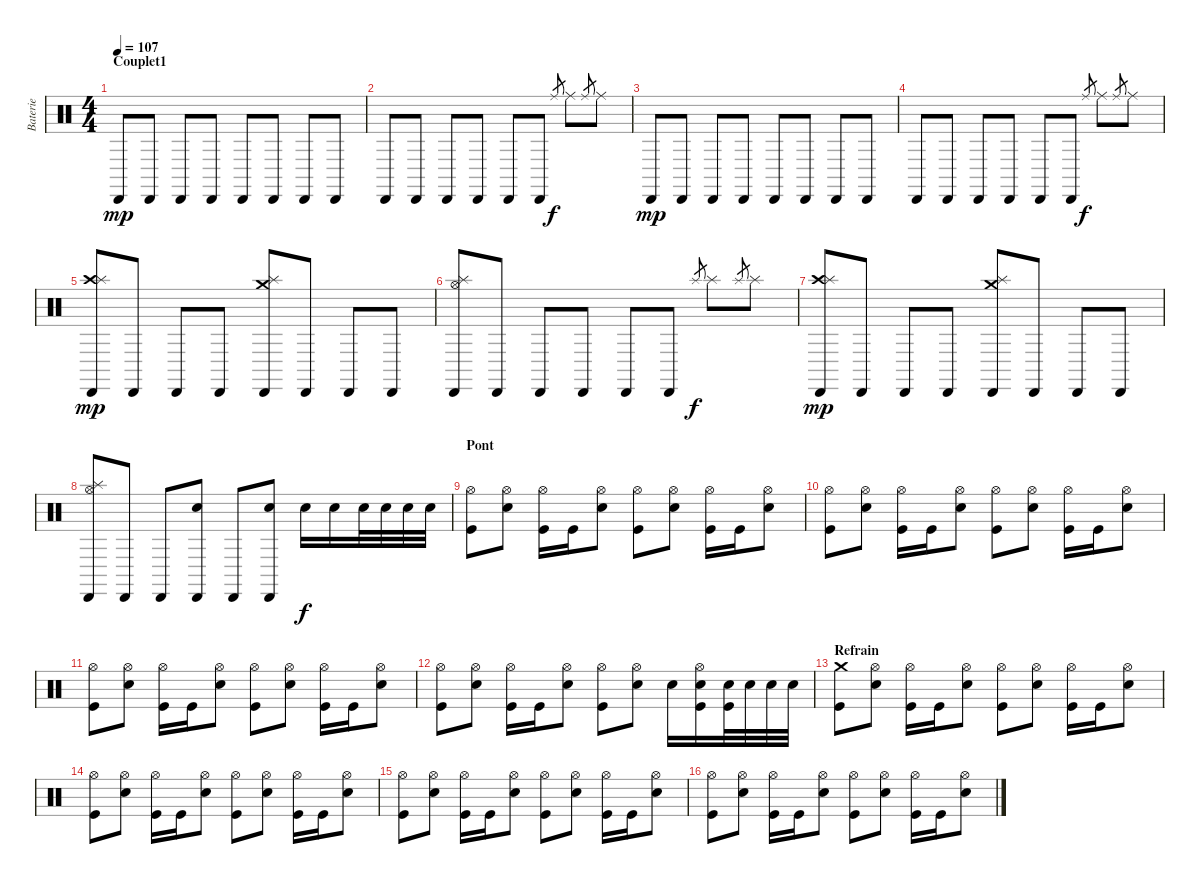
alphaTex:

\track ("Baterie" "Baterie") {instrument percussion}
\staff {score}
\articulation defaults
\ts (4 4)
\section ("" "Couplet1")
\tempo 107
\clef neutral
\ks c "Cabasa (hit)".8{dy mp} "Cabasa (hit)".8 "Cabasa (hit)".8 "Cabasa (hit)".8 "Cabasa (hit)".8 "Cabasa (hit)".8 "Cabasa (hit)".8 "Cabasa (hit)".8
|
"Cabasa (hit)".8 "Cabasa (hit)".8 "Cabasa (hit)".8 "Cabasa (hit)".8 "Cabasa (hit)".8 "Cabasa (hit)".8 "Ride (middle)".8{gr dy f} "Ride (middle)".8 "Ride (middle)".8{gr} "Ride (middle)".8 |
"Cabasa (hit)".8{dy mp} "Cabasa (hit)".8 "Cabasa (hit)".8 "Cabasa (hit)".8 "Cabasa (hit)".8 "Cabasa (hit)".8 "Cabasa (hit)".8 "Cabasa (hit)".8 |
"Cabasa (hit)".8 "Cabasa (hit)".8 "Cabasa (hit)".8 "Cabasa (hit)".8 "Cabasa (hit)".8 "Cabasa (hit)".8 "Ride (middle)".8{gr dy f} "Ride (middle)".8 "Ride (middle)".8{gr} "Ride (middle)".8 |
("Crash high (hit)" "Splash (hit)" "Cabasa (hit)").8{dy mp} "Cabasa (hit)".8 "Cabasa (hit)".8 "Cabasa (hit)".8 ("Crash medium (hit)" "Splash (hit)" "Cabasa (hit)").8 "Cabasa (hit)".8 "Cabasa (hit)".8 "Cabasa (hit)".8 |
("Hi-Hat (open)" "Splash (hit)" "Cabasa (hit)").8 "Cabasa (hit)".8 "Cabasa (hit)".8 "Cabasa (hit)".8 "Cabasa (hit)".8 "Cabasa (hit)".8 "Splash (hit)".8{gr dy f} "Splash (hit)".8 "Splash (hit)".8{gr} "Splash (hit)".8 |
("Crash high (hit)" "Splash (hit)" "Cabasa (hit)").8{dy mp} "Cabasa (hit)".8 "Cabasa (hit)".8 "Cabasa (hit)".8 ("Crash medium (hit)" "Splash (hit)" "Cabasa (hit)").8 "Cabasa (hit)".8 "Cabasa (hit)".8 "Cabasa (hit)".8 |
("Hi-Hat (open)" "Splash (hit)" "Cabasa (hit)").8 "Cabasa (hit)".8 "Cabasa (hit)".8 ("Electric Snare (hit)" "Cabasa (hit)").8 "Cabasa (hit)".8 ("Electric Snare (hit)" "Cabasa (hit)").8 "Electric Snare (hit)".16{dy f} "Electric Snare (hit)".16 "Electric Snare (hit)".32 "Electric Snare (hit)".32 "Electric Snare (hit)".32 "Electric Snare (hit)".32 |
\section ("" "Pont")
("Hi-Hat (open)" "Kick (hit)").8 ("Hi-Hat (open)" "Electric Snare (hit)").8 ("Hi-Hat (open)" "Kick (hit)").16 "Kick (hit)".16 ("Hi-Hat (open)" "Electric Snare (hit)").8 ("Hi-Hat (open)" "Kick (hit)").8 ("Hi-Hat (open)" "Electric Snare (hit)").8 ("Hi-Hat (open)" "Kick (hit)").16 "Kick (hit)".16 ("Hi-Hat (open)" "Electric Snare (hit)").8 |
("Hi-Hat (open)" "Kick (hit)").8 ("Hi-Hat (open)" "Electric Snare (hit)").8 ("Hi-Hat (open)" "Kick (hit)").16 "Kick (hit)".16 ("Hi-Hat (open)" "Electric Snare (hit)").8 ("Hi-Hat (open)" "Kick (hit)").8 ("Hi-Hat (open)" "Electric Snare (hit)").8 ("Hi-Hat (open)" "Kick (hit)").16 "Kick (hit)".16 ("Hi-Hat (open)" "Electric Snare (hit)").8 |
("Hi-Hat (open)" "Kick (hit)").8 ("Hi-Hat (open)" "Electric Snare (hit)").8 ("Hi-Hat (open)" "Kick (hit)").16 "Kick (hit)".16 ("Hi-Hat (open)" "Electric Snare (hit)").8 ("Hi-Hat (open)" "Kick (hit)").8 ("Hi-Hat (open)" "Electric Snare (hit)").8 ("Hi-Hat (open)" "Kick (hit)").16 "Kick (hit)".16 ("Hi-Hat (open)" "Electric Snare (hit)").8 |
("Hi-Hat (open)" "Kick (hit)").8 ("Hi-Hat (open)" "Electric Snare (hit)").8 ("Hi-Hat (open)" "Kick (hit)").16 "Kick (hit)".16 ("Hi-Hat (open)" "Electric Snare (hit)").8 ("Hi-Hat (open)" "Kick (hit)").8 ("Hi-Hat (open)" "Electric Snare (hit)").8 "Electric Snare (hit)".16 ("Hi-Hat (open)" "Electric Snare (hit)" "Kick (hit)").16 ("Electric Snare (hit)" "Kick (hit)").32 "Electric Snare (hit)".32 "Electric Snare (hit)".32 "Electric Snare (hit)".32 |
\section ("" "Refrain")
("Crash medium (hit)" "Kick (hit)").8 ("Hi-Hat (open)" "Electric Snare (hit)").8 ("Hi-Hat (open)" "Kick (hit)").16 "Kick (hit)".16 ("Hi-Hat (open)" "Electric Snare (hit)").8 ("Hi-Hat (open)" "Kick (hit)").8 ("Hi-Hat (open)" "Electric Snare (hit)").8 ("Hi-Hat (open)" "Kick (hit)").16 "Kick (hit)".16 ("Hi-Hat (open)" "Electric Snare (hit)").8 |
("Hi-Hat (open)" "Kick (hit)").8 ("Hi-Hat (open)" "Electric Snare (hit)").8 ("Hi-Hat (open)" "Kick (hit)").16 "Kick (hit)".16 ("Hi-Hat (open)" "Electric Snare (hit)").8 ("Hi-Hat (open)" "Kick (hit)").8 ("Hi-Hat (open)" "Electric Snare (hit)").8 ("Hi-Hat (open)" "Kick (hit)").16 "Kick (hit)".16 ("Hi-Hat (open)" "Electric Snare (hit)").8 |
("Hi-Hat (open)" "Kick (hit)").8 ("Hi-Hat (open)" "Electric Snare (hit)").8 ("Hi-Hat (open)" "Kick (hit)").16 "Kick (hit)".16 ("Hi-Hat (open)" "Electric Snare (hit)").8 ("Hi-Hat (open)" "Kick (hit)").8 ("Hi-Hat (open)" "Electric Snare (hit)").8 ("Hi-Hat (open)" "Kick (hit)").16 "Kick (hit)".16 ("Hi-Hat (open)" "Electric Snare (hit)").8 |
("Hi-Hat (open)" "Kick (hit)").8 ("Hi-Hat (open)" "Electric Snare (hit)").8 ("Hi-Hat (open)" "Kick (hit)").16 "Kick (hit)".16 ("Hi-Hat (open)" "Electric Snare (hit)").8 ("Hi-Hat (open)" "Kick (hit)").8 ("Hi-Hat (open)" "Electric Snare (hit)").8 ("Hi-Hat (open)" "Kick (hit)").16 "Kick (hit)".16 ("Hi-Hat (open)" "Electric Snare (hit)").8
